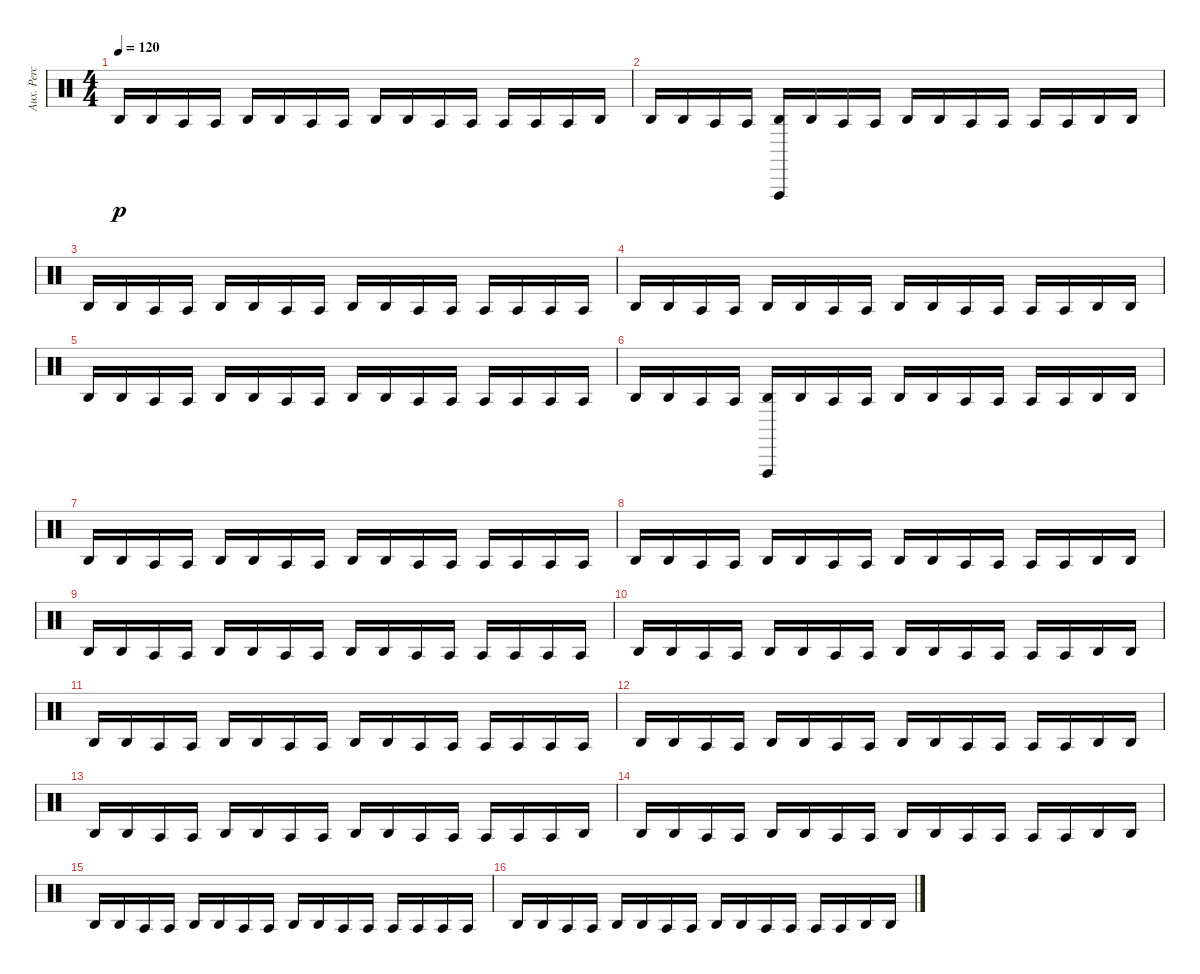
\track ("Aux. Perc" "Aux. Perc") {instrument percussion}
\staff {score}
\articulation defaults
\ts (4 4)
\tempo 120
\clef neutral
\ks c "Agogo high (hit)".16{dy p} "Agogo high (hit)".16 "Agogo tow (hit)".16 "Agogo tow (hit)".16 "Agogo high (hit)".16 "Agogo high (hit)".16 "Agogo tow (hit)".16 "Agogo tow (hit)".16 "Agogo high (hit)".16 "Agogo high (hit)".16 "Agogo tow (hit)".16 "Agogo tow (hit)".16 "Agogo tow (hit)".16 "Agogo tow (hit)".16 "Agogo tow (hit)".16 "Agogo high (hit)".16
|
"Agogo high (hit)".16 "Agogo high (hit)".16 "Agogo tow (hit)".16 "Agogo tow (hit)".16 ("Vibraslap (hit)" "Agogo high (hit)").16 "Agogo high (hit)".16 "Agogo tow (hit)".16 "Agogo tow (hit)".16 "Agogo high (hit)".16 "Agogo high (hit)".16 "Agogo tow (hit)".16 "Agogo tow (hit)".16 "Agogo tow (hit)".16 "Agogo tow (hit)".16 "Agogo high (hit)".16 "Agogo high (hit)".16 |
"Agogo high (hit)".16 "Agogo high (hit)".16 "Agogo tow (hit)".16 "Agogo tow (hit)".16 "Agogo high (hit)".16 "Agogo high (hit)".16 "Agogo tow (hit)".16 "Agogo tow (hit)".16 "Agogo high (hit)".16 "Agogo high (hit)".16 "Agogo tow (hit)".16 "Agogo tow (hit)".16 "Agogo tow (hit)".16 "Agogo tow (hit)".16 "Agogo tow (hit)".16 "Agogo tow (hit)".16 |
"Agogo high (hit)".16 "Agogo high (hit)".16 "Agogo tow (hit)".16 "Agogo tow (hit)".16 "Agogo high (hit)".16 "Agogo high (hit)".16 "Agogo tow (hit)".16 "Agogo tow (hit)".16 "Agogo high (hit)".16 "Agogo high (hit)".16 "Agogo tow (hit)".16 "Agogo tow (hit)".16 "Agogo tow (hit)".16 "Agogo tow (hit)".16 "Agogo high (hit)".16 "Agogo high (hit)".16 |
"Agogo high (hit)".16 "Agogo high (hit)".16 "Agogo tow (hit)".16 "Agogo tow (hit)".16 "Agogo high (hit)".16 "Agogo high (hit)".16 "Agogo tow (hit)".16 "Agogo tow (hit)".16 "Agogo high (hit)".16 "Agogo high (hit)".16 "Agogo tow (hit)".16 "Agogo tow (hit)".16 "Agogo tow (hit)".16 "Agogo tow (hit)".16 "Agogo tow (hit)".16 "Agogo tow (hit)".16 |
"Agogo high (hit)".16 "Agogo high (hit)".16 "Agogo tow (hit)".16 "Agogo tow (hit)".16 ("Vibraslap (hit)" "Agogo high (hit)").16 "Agogo high (hit)".16 "Agogo tow (hit)".16 "Agogo tow (hit)".16 "Agogo high (hit)".16 "Agogo high (hit)".16 "Agogo tow (hit)".16 "Agogo tow (hit)".16 "Agogo tow (hit)".16 "Agogo tow (hit)".16 "Agogo high (hit)".16 "Agogo high (hit)".16 |
"Agogo high (hit)".16 "Agogo high (hit)".16 "Agogo tow (hit)".16 "Agogo tow (hit)".16 "Agogo high (hit)".16 "Agogo high (hit)".16 "Agogo tow (hit)".16 "Agogo tow (hit)".16 "Agogo high (hit)".16 "Agogo high (hit)".16 "Agogo tow (hit)".16 "Agogo tow (hit)".16 "Agogo tow (hit)".16 "Agogo tow (hit)".16 "Agogo tow (hit)".16 "Agogo tow (hit)".16 |
"Agogo high (hit)".16 "Agogo high (hit)".16 "Agogo tow (hit)".16 "Agogo tow (hit)".16 "Agogo high (hit)".16 "Agogo high (hit)".16 "Agogo tow (hit)".16 "Agogo tow (hit)".16 "Agogo high (hit)".16 "Agogo high (hit)".16 "Agogo tow (hit)".16 "Agogo tow (hit)".16 "Agogo tow (hit)".16 "Agogo tow (hit)".16 "Agogo high (hit)".16 "Agogo high (hit)".16 |
"Agogo high (hit)".16 "Agogo high (hit)".16 "Agogo tow (hit)".16 "Agogo tow (hit)".16 "Agogo high (hit)".16 "Agogo high (hit)".16 "Agogo tow (hit)".16 "Agogo tow (hit)".16 "Agogo high (hit)".16 "Agogo high (hit)".16 "Agogo tow (hit)".16 "Agogo tow (hit)".16 "Agogo tow (hit)".16 "Agogo tow (hit)".16 "Agogo tow (hit)".16 "Agogo tow (hit)".16 |
"Agogo high (hit)".16 "Agogo high (hit)".16 "Agogo tow (hit)".16 "Agogo tow (hit)".16 "Agogo high (hit)".16 "Agogo high (hit)".16 "Agogo tow (hit)".16 "Agogo tow (hit)".16 "Agogo high (hit)".16 "Agogo high (hit)".16 "Agogo tow (hit)".16 "Agogo tow (hit)".16 "Agogo tow (hit)".16 "Agogo tow (hit)".16 "Agogo high (hit)".16 "Agogo high (hit)".16 |
"Agogo high (hit)".16 "Agogo high (hit)".16 "Agogo tow (hit)".16 "Agogo tow (hit)".16 "Agogo high (hit)".16 "Agogo high (hit)".16 "Agogo tow (hit)".16 "Agogo tow (hit)".16 "Agogo high (hit)".16 "Agogo high (hit)".16 "Agogo tow (hit)".16 "Agogo tow (hit)".16 "Agogo tow (hit)".16 "Agogo tow (hit)".16 "Agogo tow (hit)".16 "Agogo tow (hit)".16 |
"Agogo high (hit)".16 "Agogo high (hit)".16 "Agogo tow (hit)".16 "Agogo tow (hit)".16 "Agogo high (hit)".16 "Agogo high (hit)".16 "Agogo tow (hit)".16 "Agogo tow (hit)".16 "Agogo high (hit)".16 "Agogo high (hit)".16 "Agogo tow (hit)".16 "Agogo tow (hit)".16 "Agogo tow (hit)".16 "Agogo tow (hit)".16 "Agogo high (hit)".16 "Agogo high (hit)".16 |
"Agogo high (hit)".16 "Agogo high (hit)".16 "Agogo tow (hit)".16 "Agogo tow (hit)".16 "Agogo high (hit)".16 "Agogo high (hit)".16 "Agogo tow (hit)".16 "Agogo tow (hit)".16 "Agogo high (hit)".16 "Agogo high (hit)".16 "Agogo tow (hit)".16 "Agogo tow (hit)".16 "Agogo tow (hit)".16 "Agogo tow (hit)".16 "Agogo tow (hit)".16 "Agogo high (hit)".16 |
"Agogo high (hit)".16 "Agogo high (hit)".16 "Agogo tow (hit)".16 "Agogo tow (hit)".16 "Agogo high (hit)".16 "Agogo high (hit)".16 "Agogo tow (hit)".16 "Agogo tow (hit)".16 "Agogo high (hit)".16 "Agogo high (hit)".16 "Agogo tow (hit)".16 "Agogo tow (hit)".16 "Agogo tow (hit)".16 "Agogo tow (hit)".16 "Agogo high (hit)".16 "Agogo high (hit)".16 |
"Agogo high (hit)".16 "Agogo high (hit)".16 "Agogo tow (hit)".16 "Agogo tow (hit)".16 "Agogo high (hit)".16 "Agogo high (hit)".16 "Agogo tow (hit)".16 "Agogo tow (hit)".16 "Agogo high (hit)".16 "Agogo high (hit)".16 "Agogo tow (hit)".16 "Agogo tow (hit)".16 "Agogo tow (hit)".16 "Agogo tow (hit)".16 "Agogo tow (hit)".16 "Agogo tow (hit)".16 |
"Agogo high (hit)".16 "Agogo high (hit)".16 "Agogo tow (hit)".16 "Agogo tow (hit)".16 "Agogo high (hit)".16 "Agogo high (hit)".16 "Agogo tow (hit)".16 "Agogo tow (hit)".16 "Agogo high (hit)".16 "Agogo high (hit)".16 "Agogo tow (hit)".16 "Agogo tow (hit)".16 "Agogo tow (hit)".16 "Agogo tow (hit)".16 "Agogo high (hit)".16 "Agogo high (hit)".16
